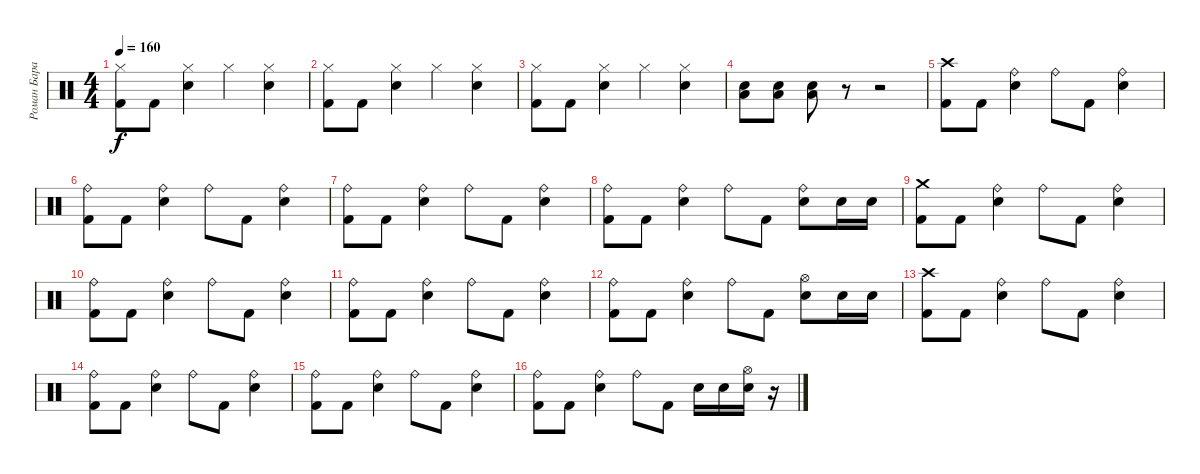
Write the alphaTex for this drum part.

\track ("Роман Баранюк" "Роман Бара") {instrument percussion}
\staff {score}
\articulation defaults
\ts (4 4)
\tempo 160
\clef neutral
\ks c
("Hi-Hat (closed)" "Kick (hit) 2").8{dy f} "Kick (hit) 2".8 ("Hi-Hat (closed)" "Snare (hit) 2").4 "Hi-Hat (closed)".4 ("Hi-Hat (closed)" "Snare (hit) 2").4 |
("Hi-Hat (closed)" "Kick (hit) 2").8 "Kick (hit) 2".8 ("Hi-Hat (closed)" "Snare (hit) 2").4 "Hi-Hat (closed)".4 ("Hi-Hat (closed)" "Snare (hit) 2").4 |
("Hi-Hat (closed)" "Kick (hit) 2").8 "Kick (hit) 2".8 ("Hi-Hat (closed)" "Snare (hit) 2").4 "Hi-Hat (closed)".4 ("Hi-Hat (closed)" "Snare (hit) 2").4 |
("Snare (hit) 2" "Low Tom (hit)").8 ("Snare (hit) 2" "Low Tom (hit)").8 ("Snare (hit) 2" "Low Tom (hit)").8 r.8 r.2 |
("Crash high (hit)" "Kick (hit) 2").8 "Kick (hit) 2".8 ("Ride (bell)" "Snare (hit) 2").4 "Ride (bell)".8 "Kick (hit) 2".8 ("Ride (bell)" "Snare (hit) 2").4 |
("Ride (bell)" "Kick (hit) 2").8 "Kick (hit) 2".8 ("Ride (bell)" "Snare (hit) 2").4 "Ride (bell)".8 "Kick (hit) 2".8 ("Ride (bell)" "Snare (hit) 2").4 |
("Ride (bell)" "Kick (hit) 2").8 "Kick (hit) 2".8 ("Ride (bell)" "Snare (hit) 2").4 "Ride (bell)".8 "Kick (hit) 2".8 ("Ride (bell)" "Snare (hit) 2").4 |
("Ride (bell)" "Kick (hit) 2").8 "Kick (hit) 2".8 ("Ride (bell)" "Snare (hit) 2").4 "Ride (bell)".8 "Kick (hit) 2".8 ("Ride (bell)" "Snare (hit) 2").8 "Snare (hit) 2".16 "Snare (hit) 2".16 |
("Crash medium (hit)" "Kick (hit) 2").8 "Kick (hit) 2".8 ("Ride (bell)" "Snare (hit) 2").4 "Ride (bell)".8 "Kick (hit) 2".8 ("Ride (bell)" "Snare (hit) 2").4 |
("Ride (bell)" "Kick (hit) 2").8 "Kick (hit) 2".8 ("Ride (bell)" "Snare (hit) 2").4 "Ride (bell)".8 "Kick (hit) 2".8 ("Ride (bell)" "Snare (hit) 2").4 |
("Ride (bell)" "Kick (hit) 2").8 "Kick (hit) 2".8 ("Ride (bell)" "Snare (hit) 2").4 "Ride (bell)".8 "Kick (hit) 2".8 ("Ride (bell)" "Snare (hit) 2").4 |
("Ride (bell)" "Kick (hit) 2").8 "Kick (hit) 2".8 ("Ride (bell)" "Snare (hit) 2").4 "Ride (bell)".8 "Kick (hit) 2".8 ("Hi-Hat (open)" "Snare (hit) 2").8 "Snare (hit) 2".16 "Snare (hit) 2".16 |
("Crash high (hit)" "Kick (hit) 2").8 "Kick (hit) 2".8 ("Ride (bell)" "Snare (hit) 2").4 "Ride (bell)".8 "Kick (hit) 2".8 ("Ride (bell)" "Snare (hit) 2").4 |
("Ride (bell)" "Kick (hit) 2").8 "Kick (hit) 2".8 ("Ride (bell)" "Snare (hit) 2").4 "Ride (bell)".8 "Kick (hit) 2".8 ("Ride (bell)" "Snare (hit) 2").4 |
("Ride (bell)" "Kick (hit) 2").8 "Kick (hit) 2".8 ("Ride (bell)" "Snare (hit) 2").4 "Ride (bell)".8 "Kick (hit) 2".8 ("Ride (bell)" "Snare (hit) 2").4 |
("Ride (bell)" "Kick (hit) 2").8 "Kick (hit) 2".8 ("Ride (bell)" "Snare (hit) 2").4 "Ride (bell)".8 "Kick (hit) 2".8 "Snare (hit) 2".16 "Snare (hit) 2".16 ("Hi-Hat (open)" "Snare (hit) 2").16 r.16
